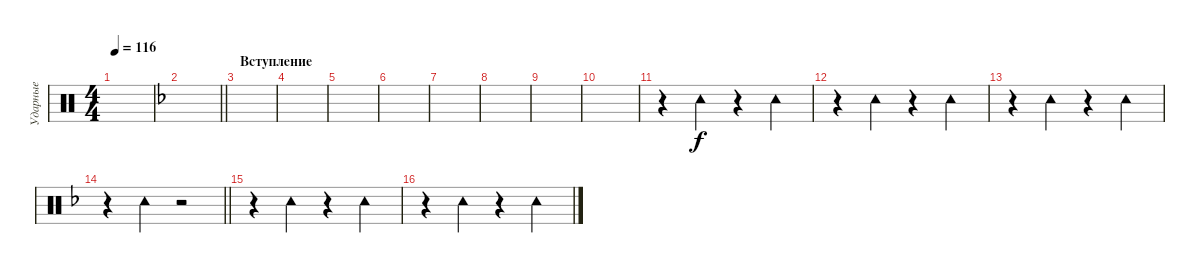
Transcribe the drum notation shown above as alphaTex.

\track ("Ударные" "Ударные") {instrument percussion}
\staff {score}
\articulation defaults
\ts (4 4)
\tempo 116
\clef neutral
\ks c
|
\barLineRight lightlight
\ks dminor
|
\section ("" "Вступление")
|
|
|
|
|
|
|
|
r.4 "Tambourine (hit)".4 r.4 "Tambourine (hit)".4 |
r.4 "Tambourine (hit)".4 r.4 "Tambourine (hit)".4 |
r.4 "Tambourine (hit)".4 r.4 "Tambourine (hit)".4 |
\barLineRight lightlight
r.4 "Tambourine (hit)".4 r.2 |
r.4 "Tambourine (hit)".4 r.4 "Tambourine (hit)".4 |
r.4 "Tambourine (hit)".4 r.4 "Tambourine (hit)".4
